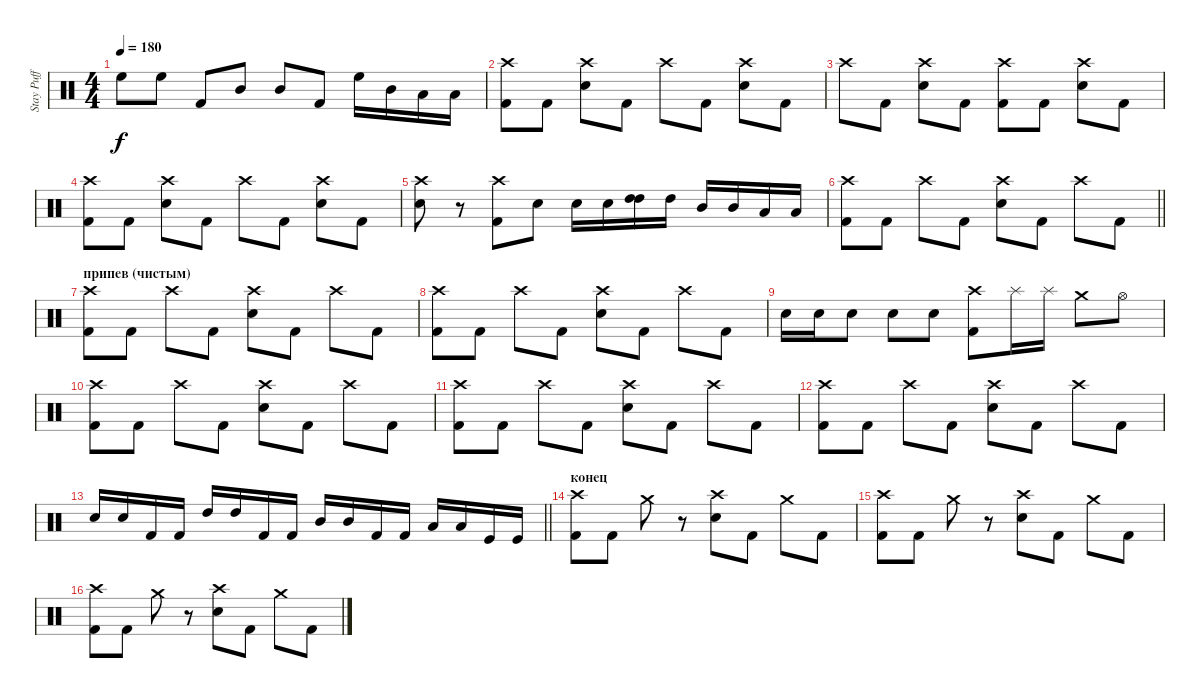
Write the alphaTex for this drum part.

\track ("Stay Puff" "Stay Puff") {instrument percussion}
\staff {score}
\articulation defaults
\ts (4 4)
\tempo 180
\clef neutral
\ks c "High Floor Tom (hit)".8{dy f} "High Floor Tom (hit)".8 "Kick (hit) 2".8 "Mid Tom (hit)".8 "Mid Tom (hit)".8 "Kick (hit) 2".8 "High Floor Tom (hit)".16 "Mid Tom (hit)".16 "Low Tom (hit)".16 "Low Floor Tom (hit)".16
|
("Crash high (hit)" "Kick (hit) 2").8 "Kick (hit) 2".8 ("Crash high (hit)" "Snare (hit) 2").8 "Kick (hit) 2".8 "Crash high (hit)".8 "Kick (hit) 2".8 ("Crash high (hit)" "Snare (hit) 2").8 "Kick (hit) 2".8 |
"Crash high (hit)".8 "Kick (hit) 2".8 ("Crash high (hit)" "Snare (hit) 2").8 "Kick (hit) 2".8 ("Crash high (hit)" "Kick (hit) 2").8 "Kick (hit) 2".8 ("Crash high (hit)" "Snare (hit) 2").8 "Kick (hit) 2".8 |
("Crash high (hit)" "Kick (hit) 2").8 "Kick (hit) 2".8 ("Crash high (hit)" "Snare (hit) 2").8 "Kick (hit) 2".8 "Crash high (hit)".8 "Kick (hit) 2".8 ("Crash high (hit)" "Snare (hit) 2").8 "Kick (hit) 2".8 |
("Crash high (hit)" "Snare (hit) 2").8 r.8 ("Crash high (hit)" "Kick (hit) 2").8 "Snare (hit) 2".8 "Electric Snare (hit)".16 "Electric Snare (hit)".16 ("High Tom (hit)" "High Tom (hit)").16 "High Tom (hit)".16 "Mid Tom (hit)".16 "Mid Tom (hit)".16 "Low Tom (hit)".16 "Low Tom (hit)".16 |
\barLineRight lightlight
("Crash high (hit)" "Kick (hit) 2").8 "Kick (hit) 2".8 "Crash high (hit)".8 "Kick (hit) 2".8 ("Crash high (hit)" "Electric Snare (hit)").8 "Kick (hit) 2".8 "Crash high (hit)".8 "Kick (hit) 2".8 |
\section ("" "припев (чистым)")
("Crash high (hit)" "Kick (hit) 2").8 "Kick (hit) 2".8 "Crash high (hit)".8 "Kick (hit) 2".8 ("Crash high (hit)" "Electric Snare (hit)").8 "Kick (hit) 2".8 "Crash high (hit)".8 "Kick (hit) 2".8 |
("Crash high (hit)" "Kick (hit) 2").8 "Kick (hit) 2".8 "Crash high (hit)".8 "Kick (hit) 2".8 ("Crash high (hit)" "Electric Snare (hit)").8 "Kick (hit) 2".8 "Crash high (hit)".8 "Kick (hit) 2".8 |
"Electric Snare (hit)".16 "Electric Snare (hit)".16 "Electric Snare (hit)".8 "Electric Snare (hit)".8 "Electric Snare (hit)".8 ("Crash high (hit)" "Kick (hit) 2").8 "Splash (hit)".16 "Splash (hit)".16 "Crash medium (hit)".8 "Hi-Hat (open)".8 |
("Crash high (hit)" "Kick (hit) 2").8 "Kick (hit) 2".8 "Crash high (hit)".8 "Kick (hit) 2".8 ("Crash high (hit)" "Electric Snare (hit)").8 "Kick (hit) 2".8 "Crash high (hit)".8 "Kick (hit) 2".8 |
("Crash high (hit)" "Kick (hit) 2").8 "Kick (hit) 2".8 "Crash high (hit)".8 "Kick (hit) 2".8 ("Crash high (hit)" "Electric Snare (hit)").8 "Kick (hit) 2".8 "Crash high (hit)".8 "Kick (hit) 2".8 |
("Crash high (hit)" "Kick (hit) 2").8 "Kick (hit) 2".8 "Crash high (hit)".8 "Kick (hit) 2".8 ("Crash high (hit)" "Electric Snare (hit)").8 "Kick (hit) 2".8 "Crash high (hit)".8 "Kick (hit) 2".8 |
\barLineRight lightlight "Electric Snare (hit)".16 "Electric Snare (hit)".16 "Kick (hit) 2".16 "Kick (hit) 2".16 "High Tom (hit)".16 "High Tom (hit)".16 "Kick (hit) 2".16 "Kick (hit) 2".16 "Mid Tom (hit)".16 "Mid Tom (hit)".16 "Kick (hit) 2".16 "Kick (hit) 2".16 "Low Tom (hit)".16 "Low Tom (hit)".16 "Kick (hit)".16 "Kick (hit)".16
|
\section ("" "конец")
("Crash high (hit)" "Kick (hit) 2").8 "Kick (hit) 2".8 "Crash medium (hit)".8 r.8 ("Crash high (hit)" "Snare (hit) 2").8 "Kick (hit) 2".8 "Crash medium (hit)".8 "Kick (hit) 2".8 |
("Crash high (hit)" "Kick (hit) 2").8 "Kick (hit) 2".8 "Crash medium (hit)".8 r.8 ("Crash high (hit)" "Snare (hit) 2").8 "Kick (hit) 2".8 "Crash medium (hit)".8 "Kick (hit) 2".8 |
("Crash high (hit)" "Kick (hit) 2").8 "Kick (hit) 2".8 "Crash medium (hit)".8 r.8 ("Crash high (hit)" "Snare (hit) 2").8 "Kick (hit) 2".8 "Crash medium (hit)".8 "Kick (hit) 2".8
